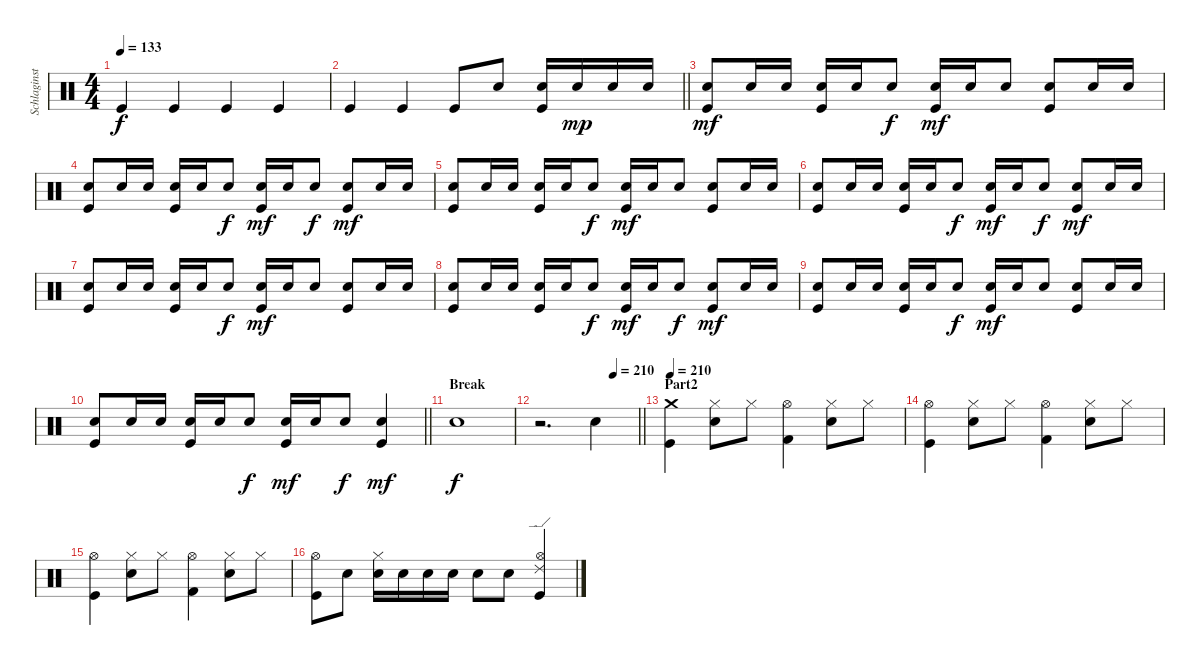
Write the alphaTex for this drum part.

\track ("Schlaginstrumente - Auswahl" "Schlaginst") {instrument percussion}
\staff {score}
\articulation defaults
\ts (4 4)
\tempo 133
\clef neutral
\ks c "Kick (hit)".4{dy f} "Kick (hit)".4 "Kick (hit)".4 "Kick (hit)".4
|
\barLineRight lightlight "Kick (hit)".4 "Kick (hit)".4 "Kick (hit)".8 "Snare (hit) 2".8
("Snare (hit) 2" "Kick (hit)").16 "Snare (hit) 2".16{dy mp} "Snare (hit) 2".16 "Snare (hit) 2".16 |
("Snare (hit) 2" "Kick (hit)").8{dy mf} "Snare (hit) 2".16 "Snare (hit) 2".16 ("Snare (hit) 2" "Kick (hit)").16 "Snare (hit) 2".16 "Snare (hit) 2".8{dy f} ("Snare (hit) 2" "Kick (hit)").16{dy mf} "Snare (hit) 2".16 "Snare (hit) 2".8 ("Snare (hit) 2" "Kick (hit)").8 "Snare (hit) 2".16 "Snare (hit) 2".16 |
("Snare (hit) 2" "Kick (hit)").8 "Snare (hit) 2".16 "Snare (hit) 2".16 ("Snare (hit) 2" "Kick (hit)").16 "Snare (hit) 2".16 "Snare (hit) 2".8{dy f} ("Snare (hit) 2" "Kick (hit)").16{dy mf} "Snare (hit) 2".16 "Snare (hit) 2".8{dy f} ("Snare (hit) 2" "Kick (hit)").8{dy mf} "Snare (hit) 2".16 "Snare (hit) 2".16 |
("Snare (hit) 2" "Kick (hit)").8 "Snare (hit) 2".16 "Snare (hit) 2".16 ("Snare (hit) 2" "Kick (hit)").16 "Snare (hit) 2".16 "Snare (hit) 2".8{dy f} ("Snare (hit) 2" "Kick (hit)").16{dy mf} "Snare (hit) 2".16 "Snare (hit) 2".8 ("Snare (hit) 2" "Kick (hit)").8 "Snare (hit) 2".16 "Snare (hit) 2".16 |
("Snare (hit) 2" "Kick (hit)").8 "Snare (hit) 2".16 "Snare (hit) 2".16 ("Snare (hit) 2" "Kick (hit)").16 "Snare (hit) 2".16 "Snare (hit) 2".8{dy f} ("Snare (hit) 2" "Kick (hit)").16{dy mf} "Snare (hit) 2".16 "Snare (hit) 2".8{dy f} ("Snare (hit) 2" "Kick (hit)").8{dy mf} "Snare (hit) 2".16 "Snare (hit) 2".16 |
("Snare (hit) 2" "Kick (hit)").8 "Snare (hit) 2".16 "Snare (hit) 2".16 ("Snare (hit) 2" "Kick (hit)").16 "Snare (hit) 2".16 "Snare (hit) 2".8{dy f} ("Snare (hit) 2" "Kick (hit)").16{dy mf} "Snare (hit) 2".16 "Snare (hit) 2".8 ("Snare (hit) 2" "Kick (hit)").8 "Snare (hit) 2".16 "Snare (hit) 2".16 |
("Snare (hit) 2" "Kick (hit)").8 "Snare (hit) 2".16 "Snare (hit) 2".16 ("Snare (hit) 2" "Kick (hit)").16 "Snare (hit) 2".16 "Snare (hit) 2".8{dy f} ("Snare (hit) 2" "Kick (hit)").16{dy mf} "Snare (hit) 2".16 "Snare (hit) 2".8{dy f} ("Snare (hit) 2" "Kick (hit)").8{dy mf} "Snare (hit) 2".16 "Snare (hit) 2".16 |
("Snare (hit) 2" "Kick (hit)").8 "Snare (hit) 2".16 "Snare (hit) 2".16 ("Snare (hit) 2" "Kick (hit)").16 "Snare (hit) 2".16 "Snare (hit) 2".8{dy f} ("Snare (hit) 2" "Kick (hit)").16{dy mf} "Snare (hit) 2".16 "Snare (hit) 2".8 ("Snare (hit) 2" "Kick (hit)").8 "Snare (hit) 2".16 "Snare (hit) 2".16 |
\barLineRight lightlight
("Snare (hit) 2" "Kick (hit)").8 "Snare (hit) 2".16 "Snare (hit) 2".16 ("Snare (hit) 2" "Kick (hit)").16 "Snare (hit) 2".16 "Snare (hit) 2".8{dy f} ("Snare (hit) 2" "Kick (hit)").16{dy mf} "Snare (hit) 2".16 "Snare (hit) 2".8{dy f} ("Snare (hit) 2" "Kick (hit)").4{dy mf} |
\section ("" "Break")
"Snare (hit) 2".1{dy f} |
\tempo (210 0.75)
\barLineRight lightlight
r.2{d} "Snare (hit) 2".4 |
\section ("" "Part2")
\tempo 210
("Crash medium (hit)" "Kick (hit)").4 ("Hi-Hat (closed)" "Snare (hit) 2").8 "Hi-Hat (closed)".8 ("Hi-Hat (open)" "Kick (hit) 2").4 ("Hi-Hat (closed)" "Snare (hit) 2").8 "Hi-Hat (closed)".8 |
("Hi-Hat (open)" "Kick (hit)").4 ("Hi-Hat (closed)" "Snare (hit) 2").8 "Hi-Hat (closed)".8 ("Hi-Hat (open)" "Kick (hit) 2").4 ("Hi-Hat (closed)" "Snare (hit) 2").8 "Hi-Hat (closed)".8 |
("Hi-Hat (open)" "Kick (hit)").4 ("Hi-Hat (closed)" "Snare (hit) 2").8 "Hi-Hat (closed)".8 ("Hi-Hat (open)" "Kick (hit) 2").4 ("Hi-Hat (closed)" "Snare (hit) 2").8 "Hi-Hat (closed)".8 |
("Hi-Hat (open)" "Kick (hit)").8 "Snare (hit) 2".8 ("Hi-Hat (closed)" "Snare (hit) 2").16 "Snare (hit) 2".16 "Snare (hit) 2".16 "Snare (hit) 2".16 "Snare (hit) 2".8 "Snare (hit) 2".8 ("Hi-Hat (open)" "Ride (edge) 2" "Kick (hit)").4
